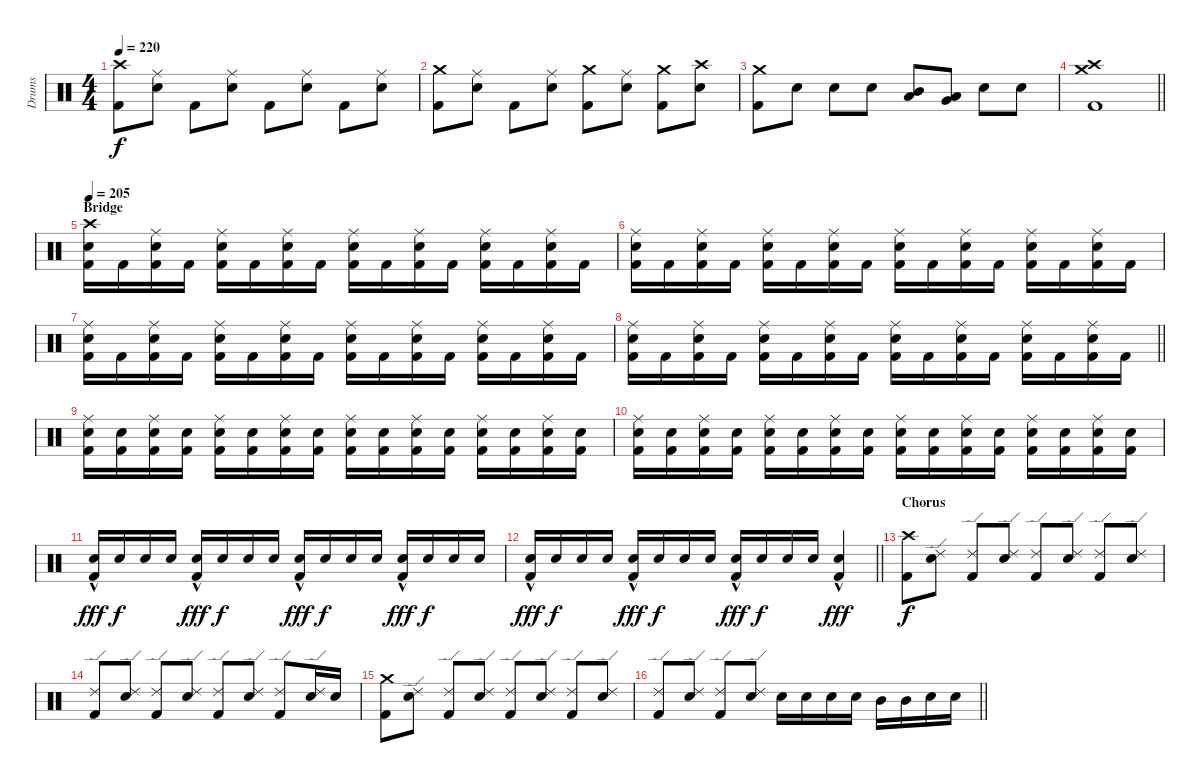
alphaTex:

\track ("Drums" "Drums") {instrument percussion}
\staff {score}
\articulation defaults
\ts (4 4)
\section ("" "")
\tempo 220
\clef neutral
\ks c
("Kick (hit) 2" "Crash high (hit)").8{dy f} ("Snare (hit) 2" "Ride (middle)").8 "Kick (hit) 2".8 ("Snare (hit) 2" "Ride (middle)").8 "Kick (hit) 2".8 ("Snare (hit) 2" "Ride (middle)").8 "Kick (hit) 2".8 ("Snare (hit) 2" "Ride (middle)").8 |
("Kick (hit) 2" "Crash medium (hit)").8 ("Snare (hit) 2" "Ride (middle)").8 "Kick (hit) 2".8 ("Snare (hit) 2" "Ride (middle)").8 ("Kick (hit) 2" "Crash medium (hit)").8 ("Snare (hit) 2" "Ride (middle)").8 ("Kick (hit) 2" "Crash medium (hit)").8 ("Snare (hit) 2" "Crash high (hit)").8 |
("Kick (hit) 2" "Crash medium (hit)").8 "Snare (hit) 2".8 "Snare (hit) 2".8 "Snare (hit) 2".8 ("Mid Tom (hit)" "Low Tom (hit)").8 ("Low Tom (hit)" "Very Low Tom (hit)").8 "Snare (hit) 2".8 "Snare (hit) 2".8 |
\barLineRight lightlight
("Kick (hit) 2" "Crash medium (hit)" "Crash high (hit)").1 |
\section ("" "Bridge")
\tempo 205
("Kick (hit) 2" "Snare (hit) 2" "Crash high (hit)").16{volume 12} "Kick (hit) 2".16 ("Kick (hit) 2" "Snare (hit) 2" "Ride (middle)").16 "Kick (hit) 2".16 ("Kick (hit) 2" "Snare (hit) 2" "Ride (middle)").16 "Kick (hit) 2".16 ("Kick (hit) 2" "Snare (hit) 2" "Ride (middle)").16 "Kick (hit) 2".16 ("Kick (hit) 2" "Snare (hit) 2" "Ride (middle)").16 "Kick (hit) 2".16 ("Kick (hit) 2" "Snare (hit) 2" "Ride (middle)").16 "Kick (hit) 2".16 ("Kick (hit) 2" "Snare (hit) 2" "Ride (middle)").16 "Kick (hit) 2".16 ("Kick (hit) 2" "Snare (hit) 2" "Ride (middle)").16 "Kick (hit) 2".16 |
("Kick (hit) 2" "Snare (hit) 2" "Ride (middle)").16 "Kick (hit) 2".16 ("Kick (hit) 2" "Snare (hit) 2" "Ride (middle)").16 "Kick (hit) 2".16 ("Kick (hit) 2" "Snare (hit) 2" "Ride (middle)").16 "Kick (hit) 2".16 ("Kick (hit) 2" "Snare (hit) 2" "Ride (middle)").16 "Kick (hit) 2".16 ("Kick (hit) 2" "Snare (hit) 2" "Ride (middle)").16 "Kick (hit) 2".16 ("Kick (hit) 2" "Snare (hit) 2" "Ride (middle)").16 "Kick (hit) 2".16 ("Kick (hit) 2" "Snare (hit) 2" "Ride (middle)").16 "Kick (hit) 2".16 ("Kick (hit) 2" "Snare (hit) 2" "Ride (middle)").16 "Kick (hit) 2".16 |
("Kick (hit) 2" "Snare (hit) 2" "Ride (middle)").16 "Kick (hit) 2".16 ("Kick (hit) 2" "Snare (hit) 2" "Ride (middle)").16 "Kick (hit) 2".16 ("Kick (hit) 2" "Snare (hit) 2" "Ride (middle)").16 "Kick (hit) 2".16 ("Kick (hit) 2" "Snare (hit) 2" "Ride (middle)").16 "Kick (hit) 2".16 ("Kick (hit) 2" "Snare (hit) 2" "Ride (middle)").16 "Kick (hit) 2".16 ("Kick (hit) 2" "Snare (hit) 2" "Ride (middle)").16 "Kick (hit) 2".16 ("Kick (hit) 2" "Snare (hit) 2" "Ride (middle)").16 "Kick (hit) 2".16 ("Kick (hit) 2" "Snare (hit) 2" "Ride (middle)").16 "Kick (hit) 2".16 |
\barLineRight lightlight
("Kick (hit) 2" "Snare (hit) 2" "Ride (middle)").16 "Kick (hit) 2".16 ("Kick (hit) 2" "Snare (hit) 2" "Ride (middle)").16 "Kick (hit) 2".16 ("Kick (hit) 2" "Snare (hit) 2" "Ride (middle)").16 "Kick (hit) 2".16 ("Kick (hit) 2" "Snare (hit) 2" "Ride (middle)").16 "Kick (hit) 2".16 ("Kick (hit) 2" "Snare (hit) 2" "Ride (middle)").16 "Kick (hit) 2".16 ("Kick (hit) 2" "Snare (hit) 2" "Ride (middle)").16 "Kick (hit) 2".16 ("Kick (hit) 2" "Snare (hit) 2" "Ride (middle)").16 "Kick (hit) 2".16 ("Kick (hit) 2" "Snare (hit) 2" "Ride (middle)").16 "Kick (hit) 2".16 |
\section ("" "")
("Kick (hit) 2" "Snare (hit) 2" "Ride (middle)").16 ("Kick (hit) 2" "Snare (hit) 2").16 ("Kick (hit) 2" "Snare (hit) 2" "Ride (middle)").16 ("Kick (hit) 2" "Snare (hit) 2").16 ("Kick (hit) 2" "Snare (hit) 2" "Ride (middle)").16 ("Kick (hit) 2" "Snare (hit) 2").16 ("Kick (hit) 2" "Snare (hit) 2" "Ride (middle)").16 ("Kick (hit) 2" "Snare (hit) 2").16 ("Kick (hit) 2" "Snare (hit) 2" "Ride (middle)").16 ("Kick (hit) 2" "Snare (hit) 2").16 ("Kick (hit) 2" "Snare (hit) 2" "Ride (middle)").16 ("Kick (hit) 2" "Snare (hit) 2").16 ("Kick (hit) 2" "Snare (hit) 2" "Ride (middle)").16 ("Kick (hit) 2" "Snare (hit) 2").16 ("Kick (hit) 2" "Snare (hit) 2" "Ride (middle)").16 ("Kick (hit) 2" "Snare (hit) 2").16 |
("Kick (hit) 2" "Snare (hit) 2" "Ride (middle)").16 ("Kick (hit) 2" "Snare (hit) 2").16 ("Kick (hit) 2" "Snare (hit) 2" "Ride (middle)").16 ("Kick (hit) 2" "Snare (hit) 2").16 ("Kick (hit) 2" "Snare (hit) 2" "Ride (middle)").16 ("Kick (hit) 2" "Snare (hit) 2").16 ("Kick (hit) 2" "Snare (hit) 2" "Ride (middle)").16 ("Kick (hit) 2" "Snare (hit) 2").16 ("Kick (hit) 2" "Snare (hit) 2" "Ride (middle)").16 ("Kick (hit) 2" "Snare (hit) 2").16 ("Kick (hit) 2" "Snare (hit) 2" "Ride (middle)").16 ("Kick (hit) 2" "Snare (hit) 2").16 ("Kick (hit) 2" "Snare (hit) 2" "Ride (middle)").16 ("Kick (hit) 2" "Snare (hit) 2").16 ("Kick (hit) 2" "Snare (hit) 2" "Ride (middle)").16 ("Kick (hit) 2" "Snare (hit) 2").16 |
("Kick (hit) 2" "Snare (hit) 2"{hac}).16{dy fff} "Snare (hit) 2".16{dy f} "Snare (hit) 2".16 "Snare (hit) 2".16 ("Kick (hit) 2" "Snare (hit) 2"{hac}).16{dy fff} "Snare (hit) 2".16{dy f} "Snare (hit) 2".16 "Snare (hit) 2".16 ("Kick (hit) 2" "Snare (hit) 2"{hac}).16{dy fff} "Snare (hit) 2".16{dy f} "Snare (hit) 2".16 "Snare (hit) 2".16 ("Kick (hit) 2" "Snare (hit) 2"{hac}).16{dy fff} "Snare (hit) 2".16{dy f} "Snare (hit) 2".16 "Snare (hit) 2".16 |
\barLineRight lightlight
("Kick (hit) 2" "Snare (hit) 2"{hac}).16{dy fff} "Snare (hit) 2".16{dy f} "Snare (hit) 2".16 "Snare (hit) 2".16 ("Kick (hit) 2" "Snare (hit) 2"{hac}).16{dy fff} "Snare (hit) 2".16{dy f} "Snare (hit) 2".16 "Snare (hit) 2".16 ("Kick (hit) 2" "Snare (hit) 2"{hac}).16{dy fff} "Snare (hit) 2".16{dy f} "Snare (hit) 2".16 "Snare (hit) 2".16 ("Kick (hit) 2" "Snare (hit) 2"{hac}).4{dy fff} |
\section ("" "Chorus")
("Kick (hit) 2" "Crash high (hit)").8{dy f} ("Snare (hit) 2" "Ride (edge) 2").8 ("Kick (hit) 2" "Ride (edge) 2").8 ("Snare (hit) 2" "Ride (edge) 2").8 ("Kick (hit) 2" "Ride (edge) 2").8 ("Snare (hit) 2" "Ride (edge) 2").8 ("Kick (hit) 2" "Ride (edge) 2").8 ("Snare (hit) 2" "Ride (edge) 2").8 |
("Kick (hit) 2" "Ride (edge) 2").8 ("Snare (hit) 2" "Ride (edge) 2").8 ("Kick (hit) 2" "Ride (edge) 2").8 ("Snare (hit) 2" "Ride (edge) 2").8 ("Kick (hit) 2" "Ride (edge) 2").8 ("Snare (hit) 2" "Ride (edge) 2").8 ("Kick (hit) 2" "Ride (edge) 2").8 ("Snare (hit) 2" "Ride (edge) 2").16 "Snare (hit) 2".16 |
("Kick (hit) 2" "Crash medium (hit)").8 ("Snare (hit) 2" "Ride (edge) 2").8 ("Kick (hit) 2" "Ride (edge) 2").8 ("Snare (hit) 2" "Ride (edge) 2").8 ("Kick (hit) 2" "Ride (edge) 2").8 ("Snare (hit) 2" "Ride (edge) 2").8 ("Kick (hit) 2" "Ride (edge) 2").8 ("Snare (hit) 2" "Ride (edge) 2").8 |
\barLineRight lightlight
("Kick (hit) 2" "Ride (edge) 2").8 ("Snare (hit) 2" "Ride (edge) 2").8 ("Kick (hit) 2" "Ride (edge) 2").8 ("Snare (hit) 2" "Ride (edge) 2").8 "Snare (hit) 2".16 "Snare (hit) 2".16 "Snare (hit) 2".16 "Snare (hit) 2".16 "Mid Tom (hit)".16 "Mid Tom (hit)".16 "Snare (hit) 2".16 "Snare (hit) 2".16
